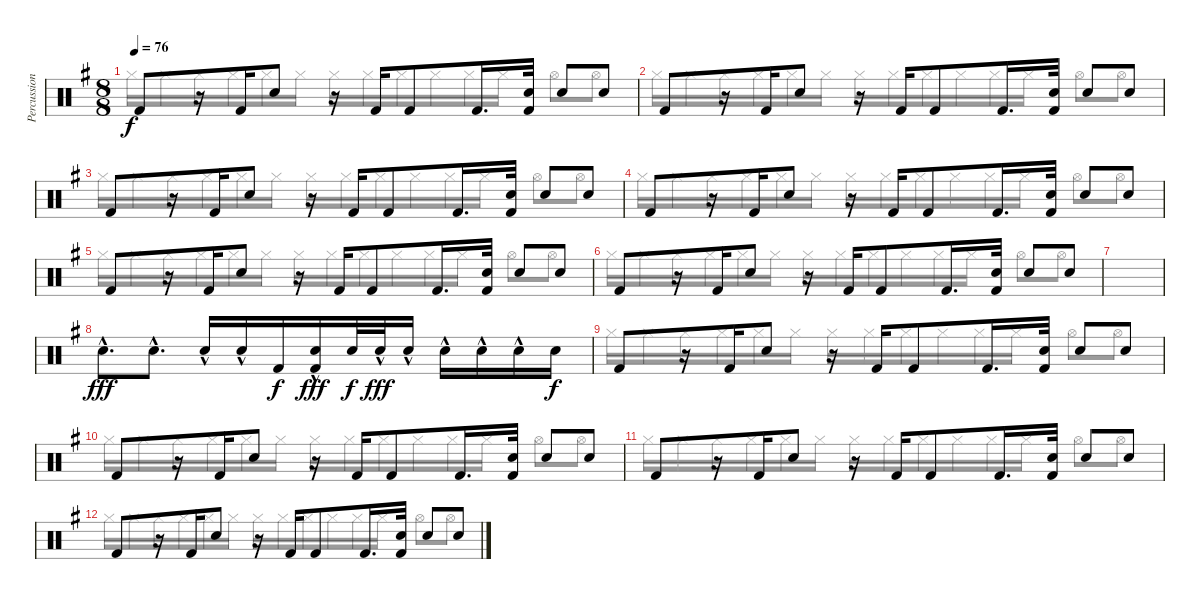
\track ("Percussion" "Percussion") {instrument percussion}
\staff {score}
\articulation defaults
\voice
\ts (8 8)
\tempo 76
\clef neutral
\ks g "Kick (hit) 2".8{dy f}
r.16 "Kick (hit) 2".16 "Snare (hit) 2".8 r.16 "Kick (hit) 2".16 "Kick (hit) 2".8 "Kick (hit) 2".16{d} ("Snare (hit) 2" "Kick (hit) 2").32 "Snare (hit) 2".8 "Snare (hit) 2".8 |
"Kick (hit) 2".8 r.16 "Kick (hit) 2".16 "Snare (hit) 2".8 r.16 "Kick (hit) 2".16 "Kick (hit) 2".8 "Kick (hit) 2".16{d} ("Snare (hit) 2" "Kick (hit) 2").32 "Snare (hit) 2".8 "Snare (hit) 2".8 |
"Kick (hit) 2".8 r.16 "Kick (hit) 2".16 "Snare (hit) 2".8 r.16 "Kick (hit) 2".16 "Kick (hit) 2".8 "Kick (hit) 2".16{d} ("Snare (hit) 2" "Kick (hit) 2").32 "Snare (hit) 2".8 "Snare (hit) 2".8 |
"Kick (hit) 2".8 r.16 "Kick (hit) 2".16 "Snare (hit) 2".8 r.16 "Kick (hit) 2".16 "Kick (hit) 2".8 "Kick (hit) 2".16{d} ("Snare (hit) 2" "Kick (hit) 2").32 "Snare (hit) 2".8 "Snare (hit) 2".8 |
"Kick (hit) 2".8 r.16 "Kick (hit) 2".16 "Snare (hit) 2".8 r.16 "Kick (hit) 2".16 "Kick (hit) 2".8 "Kick (hit) 2".16{d} ("Snare (hit) 2" "Kick (hit) 2").32 "Snare (hit) 2".8 "Snare (hit) 2".8 |
"Kick (hit) 2".8 r.16 "Kick (hit) 2".16 "Snare (hit) 2".8 r.16 "Kick (hit) 2".16 "Kick (hit) 2".8 "Kick (hit) 2".16{d} ("Snare (hit) 2" "Kick (hit) 2").32 "Snare (hit) 2".8 "Snare (hit) 2".8 |
|
"Electric Snare (hit)"{hac}.8{d dy fff} "Electric Snare (hit)"{hac}.8{d} "Electric Snare (hit)"{hac}.16 "Electric Snare (hit)"{hac}.16 "Kick (hit) 2".16{dy f} ("Electric Snare (hit)"{hac} "Kick (hit) 2").16{dy fff} "Electric Snare (hit)".32{dy f} "Electric Snare (hit)"{hac}.32{dy fff} "Electric Snare (hit)"{hac}.16 "Electric Snare (hit)"{hac}.16 "Electric Snare (hit)"{hac}.16 "Electric Snare (hit)"{hac}.16 "Electric Snare (hit)".16{dy f} |
"Kick (hit) 2".8 r.16 "Kick (hit) 2".16 "Snare (hit) 2".8 r.16 "Kick (hit) 2".16 "Kick (hit) 2".8 "Kick (hit) 2".16{d} ("Snare (hit) 2" "Kick (hit) 2").32 "Snare (hit) 2".8 "Snare (hit) 2".8 |
"Kick (hit) 2".8 r.16 "Kick (hit) 2".16 "Snare (hit) 2".8 r.16 "Kick (hit) 2".16 "Kick (hit) 2".8 "Kick (hit) 2".16{d} ("Snare (hit) 2" "Kick (hit) 2").32 "Snare (hit) 2".8 "Snare (hit) 2".8 |
"Kick (hit) 2".8 r.16 "Kick (hit) 2".16 "Snare (hit) 2".8 r.16 "Kick (hit) 2".16 "Kick (hit) 2".8 "Kick (hit) 2".16{d} ("Snare (hit) 2" "Kick (hit) 2").32 "Snare (hit) 2".8 "Snare (hit) 2".8 |
"Kick (hit) 2".8 r.16 "Kick (hit) 2".16 "Snare (hit) 2".8 r.16 "Kick (hit) 2".16 "Kick (hit) 2".8 "Kick (hit) 2".16{d} ("Snare (hit) 2" "Kick (hit) 2").32 "Snare (hit) 2".8 "Snare (hit) 2".8
\voice
\clef neutral
\ottava regular
\simile none
\ks g "Hi-Hat (closed)".16{dy f} "Hi-Hat (closed)".16 "Hi-Hat (closed)".16 "Hi-Hat (closed)".16 "Hi-Hat (closed)".16 "Hi-Hat (closed)".16 "Hi-Hat (closed)".16 "Hi-Hat (closed)".16 "Hi-Hat (closed)".16 "Hi-Hat (closed)".16 "Hi-Hat (closed)".16 "Hi-Hat (closed)".16 "Hi-Hat (open)".8 "Hi-Hat (open)".8
|
"Hi-Hat (closed)".16 "Hi-Hat (closed)".16 "Hi-Hat (closed)".16 "Hi-Hat (closed)".16 "Hi-Hat (closed)".16 "Hi-Hat (closed)".16 "Hi-Hat (closed)".16 "Hi-Hat (closed)".16 "Hi-Hat (closed)".16 "Hi-Hat (closed)".16 "Hi-Hat (closed)".16 "Hi-Hat (closed)".16 "Hi-Hat (open)".8 "Hi-Hat (open)".8 |
"Hi-Hat (closed)".16 "Hi-Hat (closed)".16 "Hi-Hat (closed)".16 "Hi-Hat (closed)".16 "Hi-Hat (closed)".16 "Hi-Hat (closed)".16 "Hi-Hat (closed)".16 "Hi-Hat (closed)".16 "Hi-Hat (closed)".16 "Hi-Hat (closed)".16 "Hi-Hat (closed)".16 "Hi-Hat (closed)".16 "Hi-Hat (open)".8 "Hi-Hat (open)".8 |
"Hi-Hat (closed)".16 "Hi-Hat (closed)".16 "Hi-Hat (closed)".16 "Hi-Hat (closed)".16 "Hi-Hat (closed)".16 "Hi-Hat (closed)".16 "Hi-Hat (closed)".16 "Hi-Hat (closed)".16 "Hi-Hat (closed)".16 "Hi-Hat (closed)".16 "Hi-Hat (closed)".16 "Hi-Hat (closed)".16 "Hi-Hat (open)".8 "Hi-Hat (open)".8 |
"Hi-Hat (closed)".16 "Hi-Hat (closed)".16 "Hi-Hat (closed)".16 "Hi-Hat (closed)".16 "Hi-Hat (closed)".16 "Hi-Hat (closed)".16 "Hi-Hat (closed)".16 "Hi-Hat (closed)".16 "Hi-Hat (closed)".16 "Hi-Hat (closed)".16 "Hi-Hat (closed)".16 "Hi-Hat (closed)".16 "Hi-Hat (open)".8 "Hi-Hat (open)".8 |
"Hi-Hat (closed)".16 "Hi-Hat (closed)".16 "Hi-Hat (closed)".16 "Hi-Hat (closed)".16 "Hi-Hat (closed)".16 "Hi-Hat (closed)".16 "Hi-Hat (closed)".16 "Hi-Hat (closed)".16 "Hi-Hat (closed)".16 "Hi-Hat (closed)".16 "Hi-Hat (closed)".16 "Hi-Hat (closed)".16 "Hi-Hat (open)".8 "Hi-Hat (open)".8 |
|
|
"Hi-Hat (closed)".16 "Hi-Hat (closed)".16 "Hi-Hat (closed)".16 "Hi-Hat (closed)".16 "Hi-Hat (closed)".16 "Hi-Hat (closed)".16 "Hi-Hat (closed)".16 "Hi-Hat (closed)".16 "Hi-Hat (closed)".16 "Hi-Hat (closed)".16 "Hi-Hat (closed)".16 "Hi-Hat (closed)".16 "Hi-Hat (open)".8 "Hi-Hat (open)".8 |
"Hi-Hat (closed)".16 "Hi-Hat (closed)".16 "Hi-Hat (closed)".16 "Hi-Hat (closed)".16 "Hi-Hat (closed)".16 "Hi-Hat (closed)".16 "Hi-Hat (closed)".16 "Hi-Hat (closed)".16 "Hi-Hat (closed)".16 "Hi-Hat (closed)".16 "Hi-Hat (closed)".16 "Hi-Hat (closed)".16 "Hi-Hat (open)".8 "Hi-Hat (open)".8 |
"Hi-Hat (closed)".16 "Hi-Hat (closed)".16 "Hi-Hat (closed)".16 "Hi-Hat (closed)".16 "Hi-Hat (closed)".16 "Hi-Hat (closed)".16 "Hi-Hat (closed)".16 "Hi-Hat (closed)".16 "Hi-Hat (closed)".16 "Hi-Hat (closed)".16 "Hi-Hat (closed)".16 "Hi-Hat (closed)".16 "Hi-Hat (open)".8 "Hi-Hat (open)".8 |
"Hi-Hat (closed)".16 "Hi-Hat (closed)".16 "Hi-Hat (closed)".16 "Hi-Hat (closed)".16 "Hi-Hat (closed)".16 "Hi-Hat (closed)".16 "Hi-Hat (closed)".16 "Hi-Hat (closed)".16 "Hi-Hat (closed)".16 "Hi-Hat (closed)".16 "Hi-Hat (closed)".16 "Hi-Hat (closed)".16 "Hi-Hat (open)".8 "Hi-Hat (open)".8
